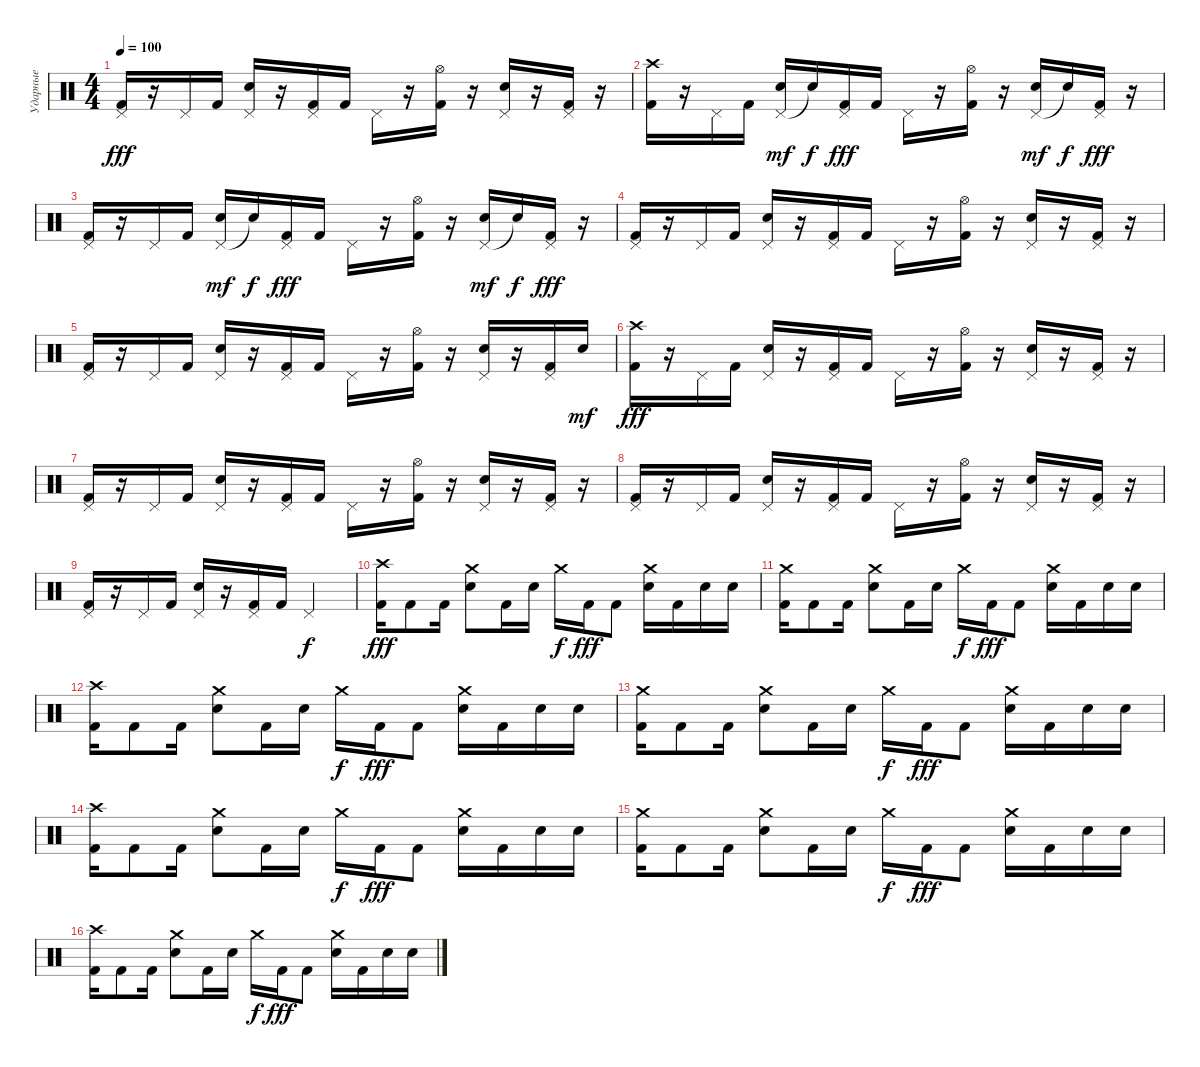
\track ("Ударные" "Ударные") {instrument percussion}
\staff {score}
\articulation defaults
\ts (4 4)
\tempo 100
\clef neutral
\ks c
("Pedal Hi-Hat (hit)" "Kick (hit) 2").16{dy fff} r.16 "Pedal Hi-Hat (hit)".16 "Kick (hit) 2".16 ("Pedal Hi-Hat (hit)" "Snare (hit) 2").16 r.16 ("Pedal Hi-Hat (hit)" "Kick (hit) 2").16 "Kick (hit) 2".16 "Pedal Hi-Hat (hit)".16 r.16 ("Hi-Hat (open)" "Kick (hit) 2").16 r.16 ("Pedal Hi-Hat (hit)" "Snare (hit) 2").16 r.16 ("Pedal Hi-Hat (hit)" "Kick (hit) 2").16 r.16 |
("Crash high (hit)" "Kick (hit) 2").16 r.16 "Pedal Hi-Hat (hit)".16 "Kick (hit) 2".16 ("Pedal Hi-Hat (hit)" "Snare (hit) 2").16{dy mf} "Snare (hit)"{t}.16{dy f} ("Pedal Hi-Hat (hit)" "Kick (hit) 2").16{dy fff} "Kick (hit) 2".16 "Pedal Hi-Hat (hit)".16 r.16 ("Hi-Hat (open)" "Kick (hit) 2").16 r.16 ("Pedal Hi-Hat (hit)" "Snare (hit) 2").16{dy mf} "Snare (hit)"{t}.16{dy f} ("Pedal Hi-Hat (hit)" "Kick (hit) 2").16{dy fff} r.16 |
("Pedal Hi-Hat (hit)" "Kick (hit) 2").16 r.16 "Pedal Hi-Hat (hit)".16 "Kick (hit) 2".16 ("Pedal Hi-Hat (hit)" "Snare (hit) 2").16{dy mf} "Snare (hit)"{t}.16{dy f} ("Pedal Hi-Hat (hit)" "Kick (hit) 2").16{dy fff} "Kick (hit) 2".16 "Pedal Hi-Hat (hit)".16 r.16 ("Hi-Hat (open)" "Kick (hit) 2").16 r.16 ("Pedal Hi-Hat (hit)" "Snare (hit) 2").16{dy mf} "Snare (hit)"{t}.16{dy f} ("Pedal Hi-Hat (hit)" "Kick (hit) 2").16{dy fff} r.16 |
("Pedal Hi-Hat (hit)" "Kick (hit) 2").16 r.16 "Pedal Hi-Hat (hit)".16 "Kick (hit) 2".16 ("Pedal Hi-Hat (hit)" "Snare (hit) 2").16 r.16 ("Pedal Hi-Hat (hit)" "Kick (hit) 2").16 "Kick (hit) 2".16 "Pedal Hi-Hat (hit)".16 r.16 ("Hi-Hat (open)" "Kick (hit) 2").16 r.16 ("Pedal Hi-Hat (hit)" "Snare (hit) 2").16 r.16 ("Pedal Hi-Hat (hit)" "Kick (hit) 2").16 r.16 |
("Pedal Hi-Hat (hit)" "Kick (hit) 2").16 r.16 "Pedal Hi-Hat (hit)".16 "Kick (hit) 2".16 ("Pedal Hi-Hat (hit)" "Snare (hit) 2").16 r.16 ("Pedal Hi-Hat (hit)" "Kick (hit) 2").16 "Kick (hit) 2".16 "Pedal Hi-Hat (hit)".16 r.16 ("Hi-Hat (open)" "Kick (hit) 2").16 r.16 ("Pedal Hi-Hat (hit)" "Snare (hit) 2").16 r.16 ("Pedal Hi-Hat (hit)" "Kick (hit) 2").16 "Snare (hit) 2".16{dy mf} |
("Crash high (hit)" "Kick (hit) 2").16{dy fff} r.16 "Pedal Hi-Hat (hit)".16 "Kick (hit) 2".16 ("Pedal Hi-Hat (hit)" "Snare (hit) 2").16 r.16 ("Pedal Hi-Hat (hit)" "Kick (hit) 2").16 "Kick (hit) 2".16 "Pedal Hi-Hat (hit)".16 r.16 ("Hi-Hat (open)" "Kick (hit) 2").16 r.16 ("Pedal Hi-Hat (hit)" "Snare (hit) 2").16 r.16 ("Pedal Hi-Hat (hit)" "Kick (hit) 2").16 r.16 |
("Pedal Hi-Hat (hit)" "Kick (hit) 2").16 r.16 "Pedal Hi-Hat (hit)".16 "Kick (hit) 2".16 ("Pedal Hi-Hat (hit)" "Snare (hit) 2").16 r.16 ("Pedal Hi-Hat (hit)" "Kick (hit) 2").16 "Kick (hit) 2".16 "Pedal Hi-Hat (hit)".16 r.16 ("Hi-Hat (open)" "Kick (hit) 2").16 r.16 ("Pedal Hi-Hat (hit)" "Snare (hit) 2").16 r.16 ("Pedal Hi-Hat (hit)" "Kick (hit) 2").16 r.16 |
("Pedal Hi-Hat (hit)" "Kick (hit) 2").16 r.16 "Pedal Hi-Hat (hit)".16 "Kick (hit) 2".16 ("Pedal Hi-Hat (hit)" "Snare (hit) 2").16 r.16 ("Pedal Hi-Hat (hit)" "Kick (hit) 2").16 "Kick (hit) 2".16 "Pedal Hi-Hat (hit)".16 r.16 ("Hi-Hat (open)" "Kick (hit) 2").16 r.16 ("Pedal Hi-Hat (hit)" "Snare (hit) 2").16 r.16 ("Pedal Hi-Hat (hit)" "Kick (hit) 2").16 r.16 |
("Pedal Hi-Hat (hit)" "Kick (hit) 2").16 r.16 "Pedal Hi-Hat (hit)".16 "Kick (hit) 2".16 ("Pedal Hi-Hat (hit)" "Snare (hit) 2").16 r.16 ("Pedal Hi-Hat (hit)" "Kick (hit) 2").16 "Kick (hit) 2".16 "Pedal Hi-Hat (hit)".2{dy f} |
("Kick (hit) 2" "Crash high (hit)").16{dy fff} "Kick (hit) 2".8 "Kick (hit) 2".16 ("Snare (hit) 2" "Crash medium (hit)").8 "Kick (hit) 2".16 "Snare (hit) 2".16 "Crash medium (hit)".16{dy f} "Kick (hit) 2".16{dy fff} "Kick (hit) 2".8 ("Snare (hit) 2" "Crash medium (hit)").16 "Kick (hit) 2".16 "Snare (hit) 2".16 "Snare (hit) 2".16 |
("Kick (hit) 2" "Crash medium (hit)").16 "Kick (hit) 2".8 "Kick (hit) 2".16 ("Snare (hit) 2" "Crash medium (hit)").8 "Kick (hit) 2".16 "Snare (hit) 2".16 "Crash medium (hit)".16{dy f} "Kick (hit) 2".16{dy fff} "Kick (hit) 2".8 ("Snare (hit) 2" "Crash medium (hit)").16 "Kick (hit) 2".16 "Snare (hit) 2".16 "Snare (hit) 2".16 |
("Kick (hit) 2" "Crash high (hit)").16 "Kick (hit) 2".8 "Kick (hit) 2".16 ("Snare (hit) 2" "Crash medium (hit)").8 "Kick (hit) 2".16 "Snare (hit) 2".16 "Crash medium (hit)".16{dy f} "Kick (hit) 2".16{dy fff} "Kick (hit) 2".8 ("Snare (hit) 2" "Crash medium (hit)").16 "Kick (hit) 2".16 "Snare (hit) 2".16 "Snare (hit) 2".16 |
("Kick (hit) 2" "Crash medium (hit)").16 "Kick (hit) 2".8 "Kick (hit) 2".16 ("Snare (hit) 2" "Crash medium (hit)").8 "Kick (hit) 2".16 "Snare (hit) 2".16 "Crash medium (hit)".16{dy f} "Kick (hit) 2".16{dy fff} "Kick (hit) 2".8 ("Snare (hit) 2" "Crash medium (hit)").16 "Kick (hit) 2".16 "Snare (hit) 2".16 "Snare (hit) 2".16 |
("Kick (hit) 2" "Crash high (hit)").16 "Kick (hit) 2".8 "Kick (hit) 2".16 ("Snare (hit) 2" "Crash medium (hit)").8 "Kick (hit) 2".16 "Snare (hit) 2".16 "Crash medium (hit)".16{dy f} "Kick (hit) 2".16{dy fff} "Kick (hit) 2".8 ("Snare (hit) 2" "Crash medium (hit)").16 "Kick (hit) 2".16 "Snare (hit) 2".16 "Snare (hit) 2".16 |
("Kick (hit) 2" "Crash medium (hit)").16 "Kick (hit) 2".8 "Kick (hit) 2".16 ("Snare (hit) 2" "Crash medium (hit)").8 "Kick (hit) 2".16 "Snare (hit) 2".16 "Crash medium (hit)".16{dy f} "Kick (hit) 2".16{dy fff} "Kick (hit) 2".8 ("Snare (hit) 2" "Crash medium (hit)").16 "Kick (hit) 2".16 "Snare (hit) 2".16 "Snare (hit) 2".16 |
("Kick (hit) 2" "Crash high (hit)").16 "Kick (hit) 2".8 "Kick (hit) 2".16 ("Snare (hit) 2" "Crash medium (hit)").8 "Kick (hit) 2".16 "Snare (hit) 2".16 "Crash medium (hit)".16{dy f} "Kick (hit) 2".16{dy fff} "Kick (hit) 2".8 ("Snare (hit) 2" "Crash medium (hit)").16 "Kick (hit) 2".16 "Snare (hit) 2".16 "Snare (hit) 2".16
